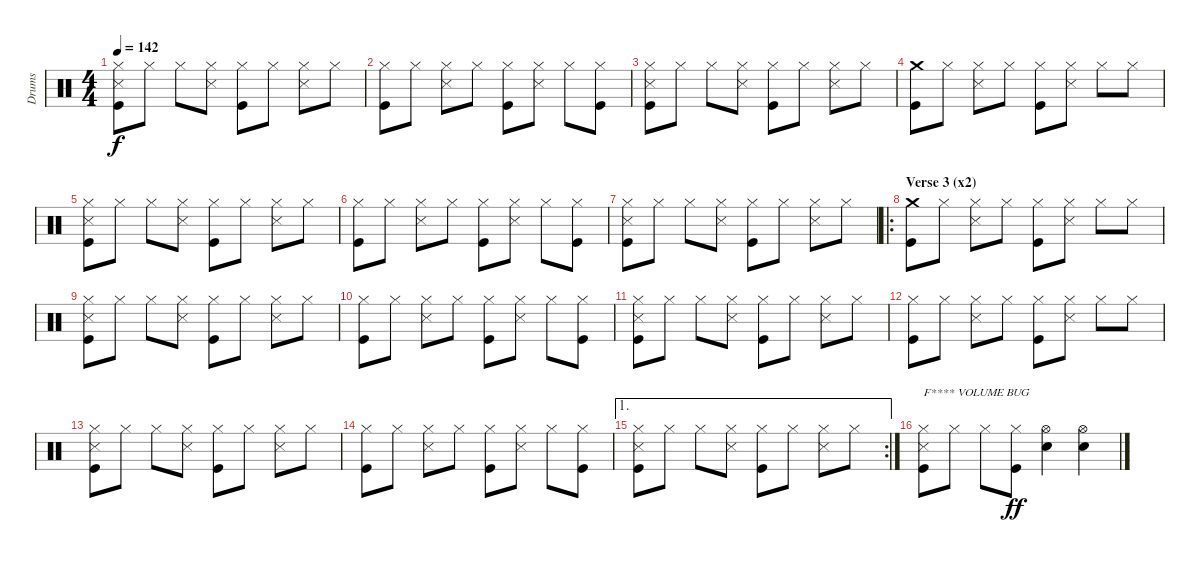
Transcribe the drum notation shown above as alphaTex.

\track ("Drums" "Drums") {instrument percussion}
\staff {score}
\articulation defaults
\ts (4 4)
\tempo 142
\clef neutral
\ks c
("Hi-Hat (closed)" "Snare (side stick) 3" "Kick (hit)").8{dy f} "Hi-Hat (closed)".8 "Hi-Hat (closed)".8 ("Hi-Hat (closed)" "Snare (side stick) 3").8 ("Hi-Hat (closed)" "Kick (hit)").8 "Hi-Hat (closed)".8 ("Hi-Hat (closed)" "Snare (side stick) 3").8 "Hi-Hat (closed)".8 |
("Hi-Hat (closed)" "Kick (hit)").8 "Hi-Hat (closed)".8 ("Hi-Hat (closed)" "Snare (side stick) 3").8 "Hi-Hat (closed)".8 ("Hi-Hat (closed)" "Kick (hit)").8 ("Hi-Hat (closed)" "Snare (side stick) 3").8 "Hi-Hat (closed)".8 ("Hi-Hat (closed)" "Kick (hit)").8 |
("Hi-Hat (closed)" "Snare (side stick) 3" "Kick (hit)").8 "Hi-Hat (closed)".8 "Hi-Hat (closed)".8 ("Hi-Hat (closed)" "Snare (side stick) 3").8 ("Hi-Hat (closed)" "Kick (hit)").8 "Hi-Hat (closed)".8 ("Hi-Hat (closed)" "Snare (side stick) 3").8 "Hi-Hat (closed)".8 |
("Crash medium (hit)" "Kick (hit)").8 "Hi-Hat (closed)".8 ("Hi-Hat (closed)" "Snare (side stick) 3").8 "Hi-Hat (closed)".8 ("Hi-Hat (closed)" "Kick (hit)").8 ("Hi-Hat (closed)" "Snare (side stick) 3").8 "Hi-Hat (closed)".8 "Hi-Hat (closed)".8 |
("Hi-Hat (closed)" "Snare (side stick) 3" "Kick (hit)").8 "Hi-Hat (closed)".8 "Hi-Hat (closed)".8 ("Hi-Hat (closed)" "Snare (side stick) 3").8 ("Hi-Hat (closed)" "Kick (hit)").8 "Hi-Hat (closed)".8 ("Hi-Hat (closed)" "Snare (side stick) 3").8 "Hi-Hat (closed)".8 |
("Hi-Hat (closed)" "Kick (hit)").8 "Hi-Hat (closed)".8 ("Hi-Hat (closed)" "Snare (side stick) 3").8 "Hi-Hat (closed)".8 ("Hi-Hat (closed)" "Kick (hit)").8 ("Hi-Hat (closed)" "Snare (side stick) 3").8 "Hi-Hat (closed)".8 ("Hi-Hat (closed)" "Kick (hit)").8 |
("Hi-Hat (closed)" "Snare (side stick) 3" "Kick (hit)").8 "Hi-Hat (closed)".8 "Hi-Hat (closed)".8 ("Hi-Hat (closed)" "Snare (side stick) 3").8 ("Hi-Hat (closed)" "Kick (hit)").8 "Hi-Hat (closed)".8 ("Hi-Hat (closed)" "Snare (side stick) 3").8 "Hi-Hat (closed)".8 |
\ro
\section ("" "Verse 3 (x2)")
("Crash medium (hit)" "Kick (hit)").8 "Hi-Hat (closed)".8 ("Hi-Hat (closed)" "Snare (side stick) 3").8 "Hi-Hat (closed)".8 ("Hi-Hat (closed)" "Kick (hit)").8 ("Hi-Hat (closed)" "Snare (side stick) 3").8 "Hi-Hat (closed)".8 "Hi-Hat (closed)".8 |
("Hi-Hat (closed)" "Snare (side stick) 3" "Kick (hit)").8 "Hi-Hat (closed)".8 "Hi-Hat (closed)".8 ("Hi-Hat (closed)" "Snare (side stick) 3").8 ("Hi-Hat (closed)" "Kick (hit)").8 "Hi-Hat (closed)".8 ("Hi-Hat (closed)" "Snare (side stick) 3").8 "Hi-Hat (closed)".8 |
("Hi-Hat (closed)" "Kick (hit)").8 "Hi-Hat (closed)".8 ("Hi-Hat (closed)" "Snare (side stick) 3").8 "Hi-Hat (closed)".8 ("Hi-Hat (closed)" "Kick (hit)").8 ("Hi-Hat (closed)" "Snare (side stick) 3").8 "Hi-Hat (closed)".8 ("Hi-Hat (closed)" "Kick (hit)").8 |
("Hi-Hat (closed)" "Snare (side stick) 3" "Kick (hit)").8 "Hi-Hat (closed)".8 "Hi-Hat (closed)".8 ("Hi-Hat (closed)" "Snare (side stick) 3").8 ("Hi-Hat (closed)" "Kick (hit)").8 "Hi-Hat (closed)".8 ("Hi-Hat (closed)" "Snare (side stick) 3").8 "Hi-Hat (closed)".8 |
("Hi-Hat (closed)" "Kick (hit)").8 "Hi-Hat (closed)".8 ("Hi-Hat (closed)" "Snare (side stick) 3").8 "Hi-Hat (closed)".8 ("Hi-Hat (closed)" "Kick (hit)").8 ("Hi-Hat (closed)" "Snare (side stick) 3").8 "Hi-Hat (closed)".8 "Hi-Hat (closed)".8 |
("Hi-Hat (closed)" "Snare (side stick) 3" "Kick (hit)").8 "Hi-Hat (closed)".8 "Hi-Hat (closed)".8 ("Hi-Hat (closed)" "Snare (side stick) 3").8 ("Hi-Hat (closed)" "Kick (hit)").8 "Hi-Hat (closed)".8 ("Hi-Hat (closed)" "Snare (side stick) 3").8 "Hi-Hat (closed)".8 |
("Hi-Hat (closed)" "Kick (hit)").8 "Hi-Hat (closed)".8 ("Hi-Hat (closed)" "Snare (side stick) 3").8 "Hi-Hat (closed)".8 ("Hi-Hat (closed)" "Kick (hit)").8 ("Hi-Hat (closed)" "Snare (side stick) 3").8 "Hi-Hat (closed)".8 ("Hi-Hat (closed)" "Kick (hit)").8 |
\ae 1
\rc 2
("Hi-Hat (closed)" "Snare (side stick) 3" "Kick (hit)").8 "Hi-Hat (closed)".8 "Hi-Hat (closed)".8 ("Hi-Hat (closed)" "Snare (side stick) 3").8 ("Hi-Hat (closed)" "Kick (hit)").8 "Hi-Hat (closed)".8 ("Hi-Hat (closed)" "Snare (side stick) 3").8 "Hi-Hat (closed)".8 |
("Hi-Hat (closed)" "Snare (side stick) 3" "Kick (hit)").8{txt "F**** VOLUME BUG" volume 12} "Hi-Hat (closed)".8{volume 13} "Hi-Hat (closed)".8 ("Hi-Hat (closed)" "Kick (hit)").8{dy ff} ("Hi-Hat (open)" "Snare (hit) 2").4 ("Hi-Hat (open)" "Snare (hit) 2").4
